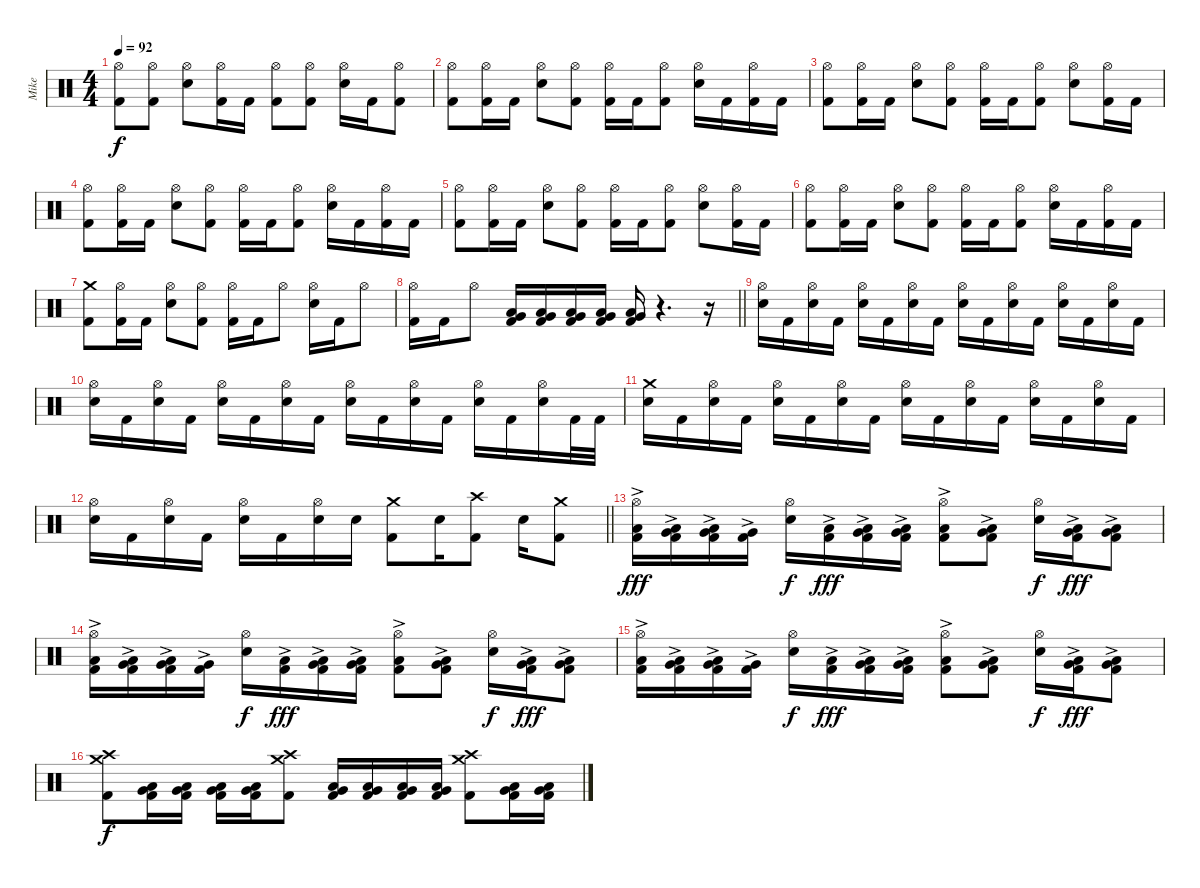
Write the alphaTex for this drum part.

\track ("Mike" "Mike") {instrument percussion}
\staff {score}
\articulation defaults
\ts (4 4)
\tempo 92
\clef neutral
\ks c
("Hi-Hat (open)" "Kick (hit) 2").8{dy f} ("Hi-Hat (open)" "Kick (hit) 2").8 ("Hi-Hat (open)" "Snare (hit) 2").8 ("Hi-Hat (open)" "Kick (hit) 2").16 "Kick (hit) 2".16 ("Hi-Hat (open)" "Kick (hit) 2").8 ("Hi-Hat (open)" "Kick (hit) 2").8 ("Hi-Hat (open)" "Snare (hit) 2").16 "Kick (hit) 2".16 ("Hi-Hat (open)" "Kick (hit) 2").8 |
("Hi-Hat (open)" "Kick (hit) 2").8 ("Hi-Hat (open)" "Kick (hit) 2").16 "Kick (hit) 2".16 ("Hi-Hat (open)" "Snare (hit) 2").8 ("Hi-Hat (open)" "Kick (hit) 2").8 ("Hi-Hat (open)" "Kick (hit) 2").16 "Kick (hit) 2".16 ("Hi-Hat (open)" "Kick (hit) 2").8 ("Hi-Hat (open)" "Snare (hit) 2").16 "Kick (hit) 2".16 ("Hi-Hat (open)" "Kick (hit) 2").16 "Kick (hit) 2".16 |
("Hi-Hat (open)" "Kick (hit) 2").8 ("Hi-Hat (open)" "Kick (hit) 2").16 "Kick (hit) 2".16 ("Hi-Hat (open)" "Snare (hit) 2").8 ("Hi-Hat (open)" "Kick (hit) 2").8 ("Hi-Hat (open)" "Kick (hit) 2").16 "Kick (hit) 2".16 ("Hi-Hat (open)" "Kick (hit) 2").8 ("Hi-Hat (open)" "Snare (hit) 2").8 ("Hi-Hat (open)" "Kick (hit) 2").16 "Kick (hit) 2".16 |
("Hi-Hat (open)" "Kick (hit) 2").8 ("Hi-Hat (open)" "Kick (hit) 2").16 "Kick (hit) 2".16 ("Hi-Hat (open)" "Snare (hit) 2").8 ("Hi-Hat (open)" "Kick (hit) 2").8 ("Hi-Hat (open)" "Kick (hit) 2").16 "Kick (hit) 2".16 ("Hi-Hat (open)" "Kick (hit) 2").8 ("Hi-Hat (open)" "Snare (hit) 2").16 "Kick (hit) 2".16 ("Hi-Hat (open)" "Kick (hit) 2").16 "Kick (hit) 2".16 |
("Hi-Hat (open)" "Kick (hit) 2").8 ("Hi-Hat (open)" "Kick (hit) 2").16 "Kick (hit) 2".16 ("Hi-Hat (open)" "Snare (hit) 2").8 ("Hi-Hat (open)" "Kick (hit) 2").8 ("Hi-Hat (open)" "Kick (hit) 2").16 "Kick (hit) 2".16 ("Hi-Hat (open)" "Kick (hit) 2").8 ("Hi-Hat (open)" "Snare (hit) 2").8 ("Hi-Hat (open)" "Kick (hit) 2").16 "Kick (hit) 2".16 |
("Hi-Hat (open)" "Kick (hit) 2").8 ("Hi-Hat (open)" "Kick (hit) 2").16 "Kick (hit) 2".16 ("Hi-Hat (open)" "Snare (hit) 2").8 ("Hi-Hat (open)" "Kick (hit) 2").8 ("Hi-Hat (open)" "Kick (hit) 2").16 "Kick (hit) 2".16 ("Hi-Hat (open)" "Kick (hit) 2").8 ("Hi-Hat (open)" "Snare (hit) 2").16 "Kick (hit) 2".16 ("Hi-Hat (open)" "Kick (hit) 2").16 "Kick (hit) 2".16 |
("Crash medium (hit)" "Kick (hit) 2").8 ("Hi-Hat (open)" "Kick (hit) 2").16 "Kick (hit) 2".16 ("Hi-Hat (open)" "Snare (hit) 2").8 ("Hi-Hat (open)" "Kick (hit) 2").8 ("Hi-Hat (open)" "Kick (hit) 2").16 "Kick (hit) 2".16 "Hi-Hat (open)".8 ("Hi-Hat (open)" "Snare (hit) 2").16 "Kick (hit) 2".16 "Hi-Hat (open)".8 |
\barLineRight lightlight
("Hi-Hat (open)" "Kick (hit) 2").16 "Kick (hit) 2".16 "Hi-Hat (open)".8 ("Low Tom (hit)" "Very Low Tom (hit)" "Kick (hit) 2").16 ("Low Tom (hit)" "Very Low Tom (hit)" "Kick (hit) 2").16 ("Low Tom (hit)" "Very Low Tom (hit)" "Kick (hit) 2").16 ("Low Tom (hit)" "Very Low Tom (hit)" "Kick (hit) 2").16 ("Low Tom (hit)" "Very Low Tom (hit)" "Kick (hit) 2").16 r.4{d} r.16 |
("Hi-Hat (open)" "Snare (hit) 2").16 "Kick (hit) 2".16 ("Hi-Hat (open)" "Snare (hit) 2").16 "Kick (hit) 2".16 ("Hi-Hat (open)" "Snare (hit) 2").16 "Kick (hit) 2".16 ("Hi-Hat (open)" "Snare (hit) 2").16 "Kick (hit) 2".16 ("Hi-Hat (open)" "Snare (hit) 2").16 "Kick (hit) 2".16 ("Hi-Hat (open)" "Snare (hit) 2").16 "Kick (hit) 2".16 ("Hi-Hat (open)" "Snare (hit) 2").16 "Kick (hit) 2".16 ("Hi-Hat (open)" "Snare (hit) 2").16 "Kick (hit) 2".16 |
("Hi-Hat (open)" "Snare (hit) 2").16 "Kick (hit) 2".16 ("Hi-Hat (open)" "Snare (hit) 2").16 "Kick (hit) 2".16 ("Hi-Hat (open)" "Snare (hit) 2").16 "Kick (hit) 2".16 ("Hi-Hat (open)" "Snare (hit) 2").16 "Kick (hit) 2".16 ("Hi-Hat (open)" "Snare (hit) 2").16 "Kick (hit) 2".16 ("Hi-Hat (open)" "Snare (hit) 2").16 "Kick (hit) 2".16 ("Hi-Hat (open)" "Snare (hit) 2").16 "Kick (hit) 2".16 ("Hi-Hat (open)" "Snare (hit) 2").16 "Kick (hit) 2".32 "Kick (hit) 2".32 |
("Crash medium (hit)" "Snare (hit) 2").16 "Kick (hit) 2".16 ("Hi-Hat (open)" "Snare (hit) 2").16 "Kick (hit) 2".16 ("Hi-Hat (open)" "Snare (hit) 2").16 "Kick (hit) 2".16 ("Hi-Hat (open)" "Snare (hit) 2").16 "Kick (hit) 2".16 ("Hi-Hat (open)" "Snare (hit) 2").16 "Kick (hit) 2".16 ("Hi-Hat (open)" "Snare (hit) 2").16 "Kick (hit) 2".16 ("Hi-Hat (open)" "Snare (hit) 2").16 "Kick (hit) 2".16 ("Hi-Hat (open)" "Snare (hit) 2").16 "Kick (hit) 2".16 |
\barLineRight lightlight
("Hi-Hat (open)" "Snare (hit) 2").16 "Kick (hit) 2".16 ("Hi-Hat (open)" "Snare (hit) 2").16 "Kick (hit) 2".16 ("Hi-Hat (open)" "Snare (hit) 2").16 "Kick (hit) 2".16 ("Hi-Hat (open)" "Snare (hit) 2").16 "Snare (hit) 2".16 ("Crash medium (hit)" "Kick (hit) 2").8 "Snare (hit) 2".16 ("Crash high (hit)" "Kick (hit) 2").8 "Snare (hit) 2".16 ("Crash medium (hit)" "Kick (hit) 2").8 |
("Hi-Hat (open)" "Low Tom (hit)"{ac} "Kick (hit) 2").16{dy fff} ("Low Tom (hit)"{ac} "Very Low Tom (hit)"{ac} "Kick (hit) 2").16 ("Very Low Tom (hit)"{ac} "Low Floor Tom (hit)"{ac} "Kick (hit) 2").16 ("Very Low Tom (hit)"{ac} "Kick (hit) 2").16 ("Hi-Hat (open)" "Snare (hit) 2").16{dy f} ("Low Tom (hit)"{ac} "Kick (hit) 2").16{dy fff} ("Low Tom (hit)"{ac} "Very Low Tom (hit)"{ac} "Kick (hit) 2").16 ("Very Low Tom (hit)"{ac} "Low Floor Tom (hit)"{ac} "Kick (hit) 2").16 ("Hi-Hat (open)" "Low Floor Tom (hit)"{ac} "Kick (hit) 2").8 ("Very Low Tom (hit)"{ac} "Low Floor Tom (hit)"{ac} "Kick (hit) 2").8 ("Hi-Hat (open)" "Snare (hit) 2").16{dy f} ("Very Low Tom (hit)"{ac} "Low Floor Tom (hit)"{ac} "Kick (hit) 2").16{dy fff} ("Very Low Tom (hit)"{ac} "Low Tom (hit)"{ac} "Kick (hit) 2").8 |
("Hi-Hat (open)" "Low Tom (hit)"{ac} "Kick (hit) 2").16 ("Low Tom (hit)"{ac} "Very Low Tom (hit)"{ac} "Kick (hit) 2").16 ("Very Low Tom (hit)"{ac} "Low Floor Tom (hit)"{ac} "Kick (hit) 2").16 ("Very Low Tom (hit)"{ac} "Kick (hit) 2").16 ("Hi-Hat (open)" "Snare (hit) 2").16{dy f} ("Low Tom (hit)"{ac} "Kick (hit) 2").16{dy fff} ("Low Tom (hit)"{ac} "Very Low Tom (hit)"{ac} "Kick (hit) 2").16 ("Very Low Tom (hit)"{ac} "Low Floor Tom (hit)"{ac} "Kick (hit) 2").16 ("Hi-Hat (open)" "Low Floor Tom (hit)"{ac} "Kick (hit) 2").8 ("Very Low Tom (hit)"{ac} "Low Floor Tom (hit)"{ac} "Kick (hit) 2").8 ("Hi-Hat (open)" "Snare (hit) 2").16{dy f} ("Very Low Tom (hit)"{ac} "Low Floor Tom (hit)"{ac} "Kick (hit) 2").16{dy fff} ("Very Low Tom (hit)"{ac} "Low Tom (hit)"{ac} "Kick (hit) 2").8 |
("Hi-Hat (open)" "Low Tom (hit)"{ac} "Kick (hit) 2").16 ("Low Tom (hit)"{ac} "Very Low Tom (hit)"{ac} "Kick (hit) 2").16 ("Very Low Tom (hit)"{ac} "Low Floor Tom (hit)"{ac} "Kick (hit) 2").16 ("Very Low Tom (hit)"{ac} "Kick (hit) 2").16 ("Hi-Hat (open)" "Snare (hit) 2").16{dy f} ("Low Tom (hit)"{ac} "Kick (hit) 2").16{dy fff} ("Low Tom (hit)"{ac} "Very Low Tom (hit)"{ac} "Kick (hit) 2").16 ("Very Low Tom (hit)"{ac} "Low Floor Tom (hit)"{ac} "Kick (hit) 2").16 ("Hi-Hat (open)" "Low Floor Tom (hit)"{ac} "Kick (hit) 2").8 ("Very Low Tom (hit)"{ac} "Low Floor Tom (hit)"{ac} "Kick (hit) 2").8 ("Hi-Hat (open)" "Snare (hit) 2").16{dy f} ("Very Low Tom (hit)"{ac} "Low Floor Tom (hit)"{ac} "Kick (hit) 2").16{dy fff} ("Very Low Tom (hit)"{ac} "Low Tom (hit)"{ac} "Kick (hit) 2").8 |
("Crash medium (hit)" "Crash high (hit)" "Kick (hit) 2").8{dy f} ("Low Tom (hit)" "Very Low Tom (hit)" "Kick (hit) 2").16 ("Low Tom (hit)" "Very Low Tom (hit)" "Kick (hit) 2").16 ("Low Tom (hit)" "Very Low Tom (hit)" "Kick (hit) 2").16 ("Low Tom (hit)" "Very Low Tom (hit)" "Kick (hit) 2").16 ("Crash medium (hit)" "Crash high (hit)" "Kick (hit) 2").8 ("Low Tom (hit)" "Very Low Tom (hit)" "Kick (hit) 2").16 ("Low Tom (hit)" "Very Low Tom (hit)" "Kick (hit) 2").16 ("Low Tom (hit)" "Very Low Tom (hit)" "Kick (hit) 2").16 ("Low Tom (hit)" "Very Low Tom (hit)" "Kick (hit) 2").16 ("Crash medium (hit)" "Crash high (hit)" "Kick (hit) 2").8 ("Low Tom (hit)" "Very Low Tom (hit)" "Kick (hit) 2").16 ("Low Tom (hit)" "Very Low Tom (hit)" "Kick (hit) 2").16
